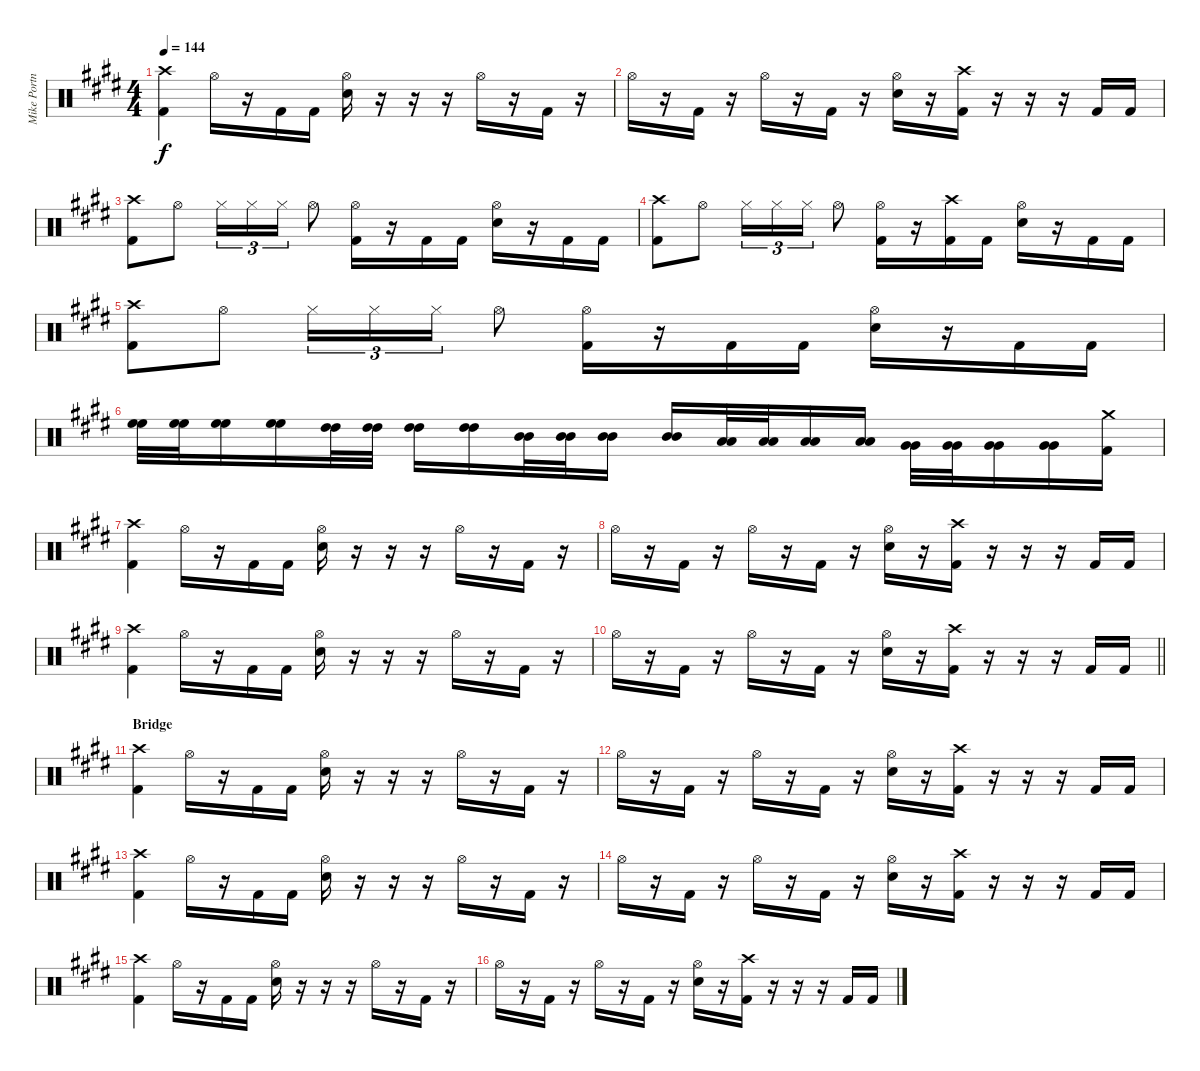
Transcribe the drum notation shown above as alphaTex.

\track ("Mike Portnoy" "Mike Portn") {instrument percussion}
\staff {score}
\articulation defaults
\ts (4 4)
\tempo 144
\clef neutral
\ks e
("Kick (hit) 2" "Crash high (hit)").4{dy f} "Hi-Hat (open)".16 r.16 "Kick (hit) 2".16 "Kick (hit) 2".16 ("Snare (hit) 2" "Hi-Hat (open)").16 r.16 r.16 r.16 "Hi-Hat (open)".16 r.16 "Kick (hit) 2".16 r.16 |
"Hi-Hat (open)".16 r.16 "Kick (hit) 2".16 r.16 "Hi-Hat (open)".16 r.16 "Kick (hit) 2".16 r.16 ("Snare (hit) 2" "Hi-Hat (open)").16 r.16 ("Crash high (hit)" "Kick (hit) 2").16 r.16 r.16 r.16 "Kick (hit) 2".16 "Kick (hit) 2".16 |
("Crash high (hit)" "Kick (hit) 2").8 "Hi-Hat (open)".8 "Hi-Hat (closed)".16{tu (3 2)} "Hi-Hat (closed)".16{tu (3 2)} "Hi-Hat (closed)".16{tu (3 2)} "Hi-Hat (open)".8 ("Kick (hit) 2" "Hi-Hat (open)").16 r.16 "Kick (hit) 2".16 "Kick (hit) 2".16 ("Snare (hit) 2" "Hi-Hat (open)").16 r.16 "Kick (hit) 2".16 "Kick (hit) 2".16 |
("Crash high (hit)" "Kick (hit) 2").8 "Hi-Hat (open)".8 "Hi-Hat (closed)".16{tu (3 2)} "Hi-Hat (closed)".16{tu (3 2)} "Hi-Hat (closed)".16{tu (3 2)} "Hi-Hat (open)".8 ("Kick (hit) 2" "Hi-Hat (open)").16 r.16 ("Crash high (hit)" "Kick (hit) 2").16 "Kick (hit) 2".16 ("Snare (hit) 2" "Hi-Hat (open)").16 r.16 "Kick (hit) 2".16 "Kick (hit) 2".16 |
("Crash high (hit)" "Kick (hit) 2").8 "Hi-Hat (open)".8 "Hi-Hat (closed)".16{tu (3 2)} "Hi-Hat (closed)".16{tu (3 2)} "Hi-Hat (closed)".16{tu (3 2)} "Hi-Hat (open)".8 ("Kick (hit) 2" "Hi-Hat (open)").16 r.16 "Kick (hit) 2".16 "Kick (hit) 2".16 ("Snare (hit) 2" "Hi-Hat (open)").16 r.16 "Kick (hit) 2".16 "Kick (hit) 2".16 |
("High Floor Tom (hit)" "High Floor Tom (hit)").32 ("High Floor Tom (hit)" "High Floor Tom (hit)").32 ("High Floor Tom (hit)" "High Floor Tom (hit)").16 ("High Floor Tom (hit)" "High Floor Tom (hit)").16 ("High Tom (hit)" "High Tom (hit)").32 ("High Tom (hit)" "High Tom (hit)").32 ("High Tom (hit)" "High Tom (hit)").16 ("High Tom (hit)" "High Tom (hit)").16 ("Mid Tom (hit)" "Mid Tom (hit)").32 ("Mid Tom (hit)" "Mid Tom (hit)").32 ("Mid Tom (hit)" "Mid Tom (hit)").16 ("Mid Tom (hit)" "Mid Tom (hit)").16 ("Low Tom (hit)" "Low Tom (hit)").32 ("Low Tom (hit)" "Low Tom (hit)").32 ("Low Tom (hit)" "Low Tom (hit)").16 ("Low Tom (hit)" "Low Tom (hit)").16 ("Very Low Tom (hit)" "Very Low Tom (hit)").32 ("Very Low Tom (hit)" "Very Low Tom (hit)").32 ("Very Low Tom (hit)" "Very Low Tom (hit)").16 ("Very Low Tom (hit)" "Very Low Tom (hit)").16 ("Crash medium (hit)" "Kick (hit) 2").16 |
("Kick (hit) 2" "Crash high (hit)").4 "Hi-Hat (open)".16 r.16 "Kick (hit) 2".16 "Kick (hit) 2".16 ("Snare (hit) 2" "Hi-Hat (open)").16 r.16 r.16 r.16 "Hi-Hat (open)".16 r.16 "Kick (hit) 2".16 r.16 |
"Hi-Hat (open)".16 r.16 "Kick (hit) 2".16 r.16 "Hi-Hat (open)".16 r.16 "Kick (hit) 2".16 r.16 ("Snare (hit) 2" "Hi-Hat (open)").16 r.16 ("Crash high (hit)" "Kick (hit) 2").16 r.16 r.16 r.16 "Kick (hit) 2".16 "Kick (hit) 2".16 |
("Kick (hit) 2" "Crash high (hit)").4 "Hi-Hat (open)".16 r.16 "Kick (hit) 2".16 "Kick (hit) 2".16 ("Snare (hit) 2" "Hi-Hat (open)").16 r.16 r.16 r.16 "Hi-Hat (open)".16 r.16 "Kick (hit) 2".16 r.16 |
\barLineRight lightlight "Hi-Hat (open)".16
r.16 "Kick (hit) 2".16 r.16 "Hi-Hat (open)".16 r.16 "Kick (hit) 2".16 r.16 ("Snare (hit) 2" "Hi-Hat (open)").16 r.16 ("Crash high (hit)" "Kick (hit) 2").16 r.16 r.16 r.16 "Kick (hit) 2".16 "Kick (hit) 2".16 |
\section ("" "Bridge")
("Kick (hit) 2" "Crash high (hit)").4 "Hi-Hat (open)".16 r.16 "Kick (hit) 2".16 "Kick (hit) 2".16 ("Snare (hit) 2" "Hi-Hat (open)").16 r.16 r.16 r.16 "Hi-Hat (open)".16 r.16 "Kick (hit) 2".16 r.16 |
"Hi-Hat (open)".16 r.16 "Kick (hit) 2".16 r.16 "Hi-Hat (open)".16 r.16 "Kick (hit) 2".16 r.16 ("Snare (hit) 2" "Hi-Hat (open)").16 r.16 ("Crash high (hit)" "Kick (hit) 2").16 r.16 r.16 r.16 "Kick (hit) 2".16 "Kick (hit) 2".16 |
("Kick (hit) 2" "Crash high (hit)").4 "Hi-Hat (open)".16 r.16 "Kick (hit) 2".16 "Kick (hit) 2".16 ("Snare (hit) 2" "Hi-Hat (open)").16 r.16 r.16 r.16 "Hi-Hat (open)".16 r.16 "Kick (hit) 2".16 r.16 |
"Hi-Hat (open)".16 r.16 "Kick (hit) 2".16 r.16 "Hi-Hat (open)".16 r.16 "Kick (hit) 2".16 r.16 ("Snare (hit) 2" "Hi-Hat (open)").16 r.16 ("Crash high (hit)" "Kick (hit) 2").16 r.16 r.16 r.16 "Kick (hit) 2".16 "Kick (hit) 2".16 |
("Kick (hit) 2" "Crash high (hit)").4 "Hi-Hat (open)".16 r.16 "Kick (hit) 2".16 "Kick (hit) 2".16 ("Snare (hit) 2" "Hi-Hat (open)").16 r.16 r.16 r.16 "Hi-Hat (open)".16 r.16 "Kick (hit) 2".16 r.16 |
"Hi-Hat (open)".16 r.16 "Kick (hit) 2".16 r.16 "Hi-Hat (open)".16 r.16 "Kick (hit) 2".16 r.16 ("Snare (hit) 2" "Hi-Hat (open)").16 r.16 ("Crash high (hit)" "Kick (hit) 2").16 r.16 r.16 r.16 "Kick (hit) 2".16 "Kick (hit) 2".16
